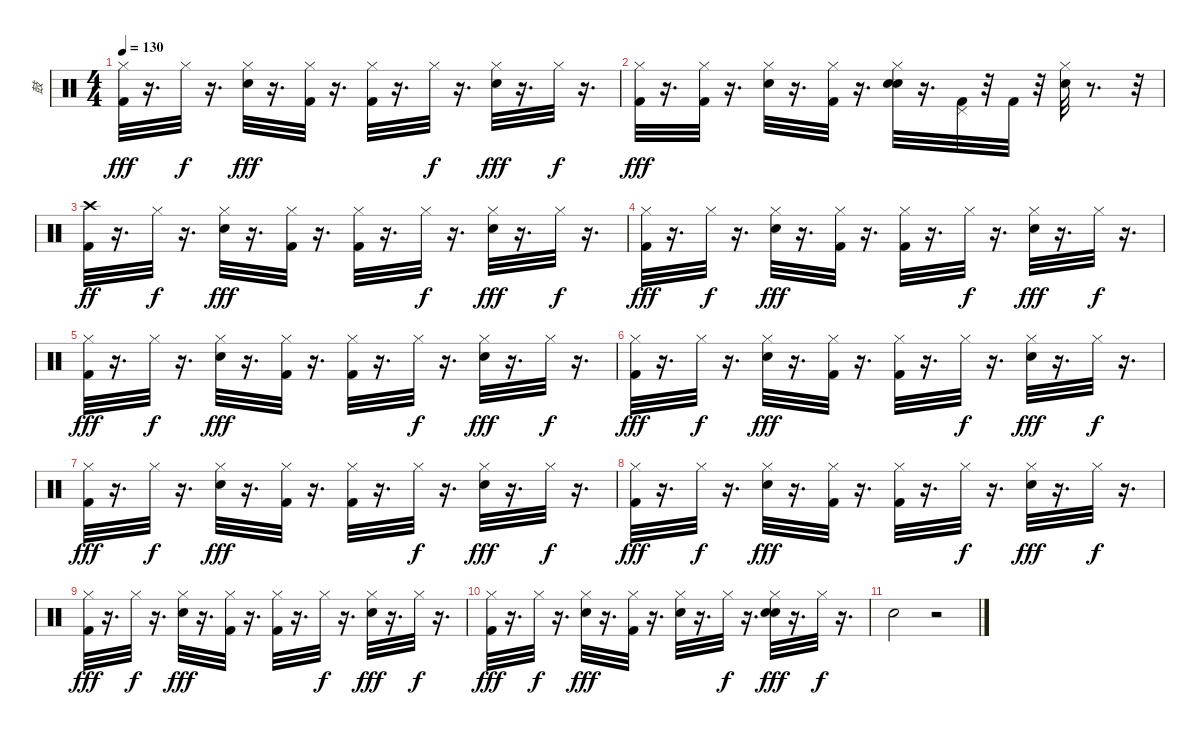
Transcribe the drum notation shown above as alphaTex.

\track ("鼓" "鼓") {instrument percussion}
\staff {score}
\articulation defaults
\ts (4 4)
\tempo 130
\clef neutral
\ks c
("Kick (hit) 2" "Hi-Hat (closed)").32{dy fff} r.16{d} "Hi-Hat (closed)".32{dy f} r.16{d} ("Hi-Hat (closed)" "Electric Snare (hit)").32{dy fff} r.16{d} ("Kick (hit) 2" "Hi-Hat (closed)").32 r.16{d} ("Kick (hit) 2" "Hi-Hat (closed)").32 r.16{d} "Hi-Hat (closed)".32{dy f} r.16{d} ("Hi-Hat (closed)" "Electric Snare (hit)").32{dy fff} r.16{d} "Hi-Hat (closed)".32{dy f} r.16{d} |
("Kick (hit) 2" "Hi-Hat (closed)").32{dy fff} r.16{d} ("Hi-Hat (closed)" "Kick (hit) 2").32 r.16{d} ("Hi-Hat (closed)" "Electric Snare (hit)").32 r.16{d} ("Kick (hit) 2" "Hi-Hat (closed)").32 r.16{d} ("Electric Snare (hit)" "Hi-Hat (closed)" "Electric Snare (hit)").32 r.16{d} ("Pedal Hi-Hat (hit)" "Kick (hit) 2").32 r.32 "Kick (hit) 2".32 r.32 ("Electric Snare (hit)" "Hi-Hat (closed)").32 r.8{d} r.32 |
("Kick (hit) 2" "Crash high (hit)").32{dy ff} r.16{d} "Hi-Hat (closed)".32{dy f} r.16{d} ("Hi-Hat (closed)" "Electric Snare (hit)").32{dy fff} r.16{d} ("Kick (hit) 2" "Hi-Hat (closed)").32 r.16{d} ("Kick (hit) 2" "Hi-Hat (closed)").32 r.16{d} "Hi-Hat (closed)".32{dy f} r.16{d} ("Hi-Hat (closed)" "Electric Snare (hit)").32{dy fff} r.16{d} "Hi-Hat (closed)".32{dy f} r.16{d} |
("Kick (hit) 2" "Hi-Hat (closed)").32{dy fff} r.16{d} "Hi-Hat (closed)".32{dy f} r.16{d} ("Hi-Hat (closed)" "Electric Snare (hit)").32{dy fff} r.16{d} ("Kick (hit) 2" "Hi-Hat (closed)").32 r.16{d} ("Kick (hit) 2" "Hi-Hat (closed)").32 r.16{d} "Hi-Hat (closed)".32{dy f} r.16{d} ("Hi-Hat (closed)" "Electric Snare (hit)").32{dy fff} r.16{d} "Hi-Hat (closed)".32{dy f} r.16{d} |
("Kick (hit) 2" "Hi-Hat (closed)").32{dy fff} r.16{d} "Hi-Hat (closed)".32{dy f} r.16{d} ("Hi-Hat (closed)" "Electric Snare (hit)").32{dy fff} r.16{d} ("Kick (hit) 2" "Hi-Hat (closed)").32 r.16{d} ("Kick (hit) 2" "Hi-Hat (closed)").32 r.16{d} "Hi-Hat (closed)".32{dy f} r.16{d} ("Hi-Hat (closed)" "Electric Snare (hit)").32{dy fff} r.16{d} "Hi-Hat (closed)".32{dy f} r.16{d} |
("Kick (hit) 2" "Hi-Hat (closed)").32{dy fff} r.16{d} "Hi-Hat (closed)".32{dy f} r.16{d} ("Hi-Hat (closed)" "Electric Snare (hit)").32{dy fff} r.16{d} ("Kick (hit) 2" "Hi-Hat (closed)").32 r.16{d} ("Kick (hit) 2" "Hi-Hat (closed)").32 r.16{d} "Hi-Hat (closed)".32{dy f} r.16{d} ("Hi-Hat (closed)" "Electric Snare (hit)").32{dy fff} r.16{d} "Hi-Hat (closed)".32{dy f} r.16{d} |
("Kick (hit) 2" "Hi-Hat (closed)").32{dy fff} r.16{d} "Hi-Hat (closed)".32{dy f} r.16{d} ("Hi-Hat (closed)" "Electric Snare (hit)").32{dy fff} r.16{d} ("Kick (hit) 2" "Hi-Hat (closed)").32 r.16{d} ("Kick (hit) 2" "Hi-Hat (closed)").32 r.16{d} "Hi-Hat (closed)".32{dy f} r.16{d} ("Hi-Hat (closed)" "Electric Snare (hit)").32{dy fff} r.16{d} "Hi-Hat (closed)".32{dy f} r.16{d} |
("Kick (hit) 2" "Hi-Hat (closed)").32{dy fff} r.16{d} "Hi-Hat (closed)".32{dy f} r.16{d} ("Hi-Hat (closed)" "Electric Snare (hit)").32{dy fff} r.16{d} ("Kick (hit) 2" "Hi-Hat (closed)").32 r.16{d} ("Kick (hit) 2" "Hi-Hat (closed)").32 r.16{d} "Hi-Hat (closed)".32{dy f} r.16{d} ("Hi-Hat (closed)" "Electric Snare (hit)").32{dy fff} r.16{d} "Hi-Hat (closed)".32{dy f} r.16{d} |
("Kick (hit) 2" "Hi-Hat (closed)").32{dy fff} r.16{d} "Hi-Hat (closed)".32{dy f} r.16{d} ("Hi-Hat (closed)" "Electric Snare (hit)").32{dy fff} r.16{d} ("Kick (hit) 2" "Hi-Hat (closed)").32 r.16{d} ("Kick (hit) 2" "Hi-Hat (closed)").32 r.16{d} "Hi-Hat (closed)".32{dy f} r.16{d} ("Hi-Hat (closed)" "Electric Snare (hit)").32{dy fff} r.16{d} "Hi-Hat (closed)".32{dy f} r.16{d} |
("Kick (hit) 2" "Hi-Hat (closed)").32{dy fff} r.16{d} "Hi-Hat (closed)".32{dy f} r.16{d} ("Hi-Hat (closed)" "Electric Snare (hit)").32{dy fff} r.16{d} ("Kick (hit) 2" "Hi-Hat (closed)").32 r.16{d} ("Electric Snare (hit)" "Hi-Hat (closed)").32 r.16{d} "Hi-Hat (closed)".32{dy f} r.16{d} ("Electric Snare (hit)" "Hi-Hat (closed)" "Electric Snare (hit)").32{dy fff} r.16{d} "Hi-Hat (closed)".32{dy f} r.16{d} |
"Electric Snare (hit)".2 r.2
